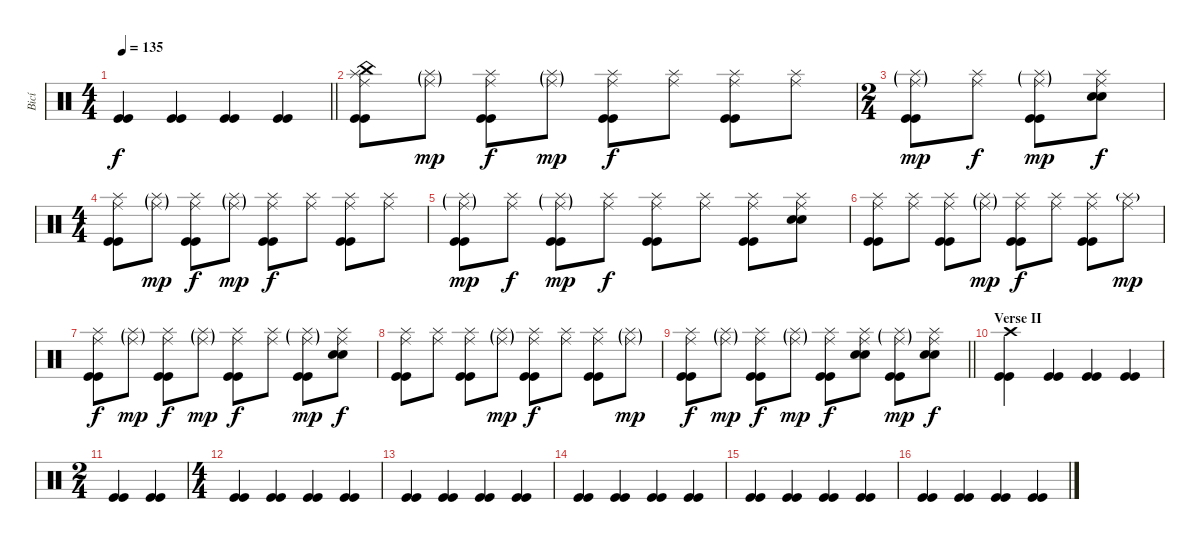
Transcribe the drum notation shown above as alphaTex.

\track ("Bicí" "Bicí") {instrument percussion}
\staff {score}
\articulation defaults
\ts (4 4)
\tempo 135
\clef neutral
\barLineRight lightlight
\ks c
("Kick (hit)" "Kick (hit)").4{dy f} ("Kick (hit)" "Kick (hit)").4 ("Kick (hit)" "Kick (hit)").4 ("Kick (hit)" "Kick (hit)").4 |
\section ("" "")
("China (hit)" "Splash (hit)" "Ride (middle)" "Kick (hit)" "Kick (hit)").8 ("Splash (hit)"{g} "Ride (middle)"{g}).8{dy mp} ("Splash (hit)" "Ride (middle)" "Kick (hit)" "Kick (hit)").8{dy f} ("Splash (hit)"{g} "Ride (middle)"{g}).8{dy mp} ("Splash (hit)" "Ride (middle)" "Kick (hit)" "Kick (hit)").8{dy f} ("Splash (hit)" "Ride (middle)").8 ("Splash (hit)" "Ride (middle)" "Kick (hit)" "Kick (hit)").8 ("Splash (hit)" "Ride (middle)").8 |
\ts (2 4)
("Splash (hit)"{g} "Ride (middle)"{g} "Kick (hit)" "Kick (hit)").8{dy mp} ("Splash (hit)" "Ride (middle)").8{dy f} ("Splash (hit)"{g} "Ride (middle)"{g} "Kick (hit)" "Kick (hit)").8{dy mp} ("Splash (hit)" "Ride (middle)" "Electric Snare (hit)" "Electric Snare (hit)").8{dy f} |
\ts (4 4)
("Splash (hit)" "Ride (middle)" "Kick (hit)" "Kick (hit)").8 ("Splash (hit)"{g} "Ride (middle)"{g}).8{dy mp} ("Splash (hit)" "Ride (middle)" "Kick (hit)" "Kick (hit)").8{dy f} ("Splash (hit)"{g} "Ride (middle)"{g}).8{dy mp} ("Splash (hit)" "Ride (middle)" "Kick (hit)" "Kick (hit)").8{dy f} ("Splash (hit)" "Ride (middle)").8 ("Splash (hit)" "Ride (middle)" "Kick (hit)" "Kick (hit)").8 ("Splash (hit)" "Ride (middle)").8 |
("Splash (hit)"{g} "Ride (middle)"{g} "Kick (hit)" "Kick (hit)").8{dy mp} ("Splash (hit)" "Ride (middle)").8{dy f} ("Splash (hit)"{g} "Ride (middle)"{g} "Kick (hit)" "Kick (hit)").8{dy mp} ("Splash (hit)" "Ride (middle)").8{dy f} ("Splash (hit)" "Ride (middle)" "Kick (hit)" "Kick (hit)").8 ("Splash (hit)" "Ride (middle)").8 ("Splash (hit)" "Ride (middle)" "Kick (hit)" "Kick (hit)").8 ("Splash (hit)" "Ride (middle)" "Electric Snare (hit)" "Electric Snare (hit)").8 |
("Splash (hit)" "Ride (middle)" "Kick (hit)" "Kick (hit)").8 ("Splash (hit)" "Ride (middle)").8 ("Splash (hit)" "Ride (middle)" "Kick (hit)" "Kick (hit)").8 ("Splash (hit)"{g} "Ride (middle)"{g}).8{dy mp} ("Splash (hit)" "Ride (middle)" "Kick (hit)" "Kick (hit)").8{dy f} ("Splash (hit)" "Ride (middle)").8 ("Splash (hit)" "Ride (middle)" "Kick (hit)" "Kick (hit)").8 ("Splash (hit)"{g} "Ride (middle)").8{dy mp} |
("Splash (hit)" "Ride (middle)" "Kick (hit)" "Kick (hit)").8{dy f} ("Splash (hit)"{g} "Ride (middle)"{g}).8{dy mp} ("Splash (hit)" "Ride (middle)" "Kick (hit)" "Kick (hit)").8{dy f} ("Splash (hit)"{g} "Ride (middle)"{g}).8{dy mp} ("Splash (hit)" "Ride (middle)" "Kick (hit)" "Kick (hit)").8{dy f} ("Splash (hit)" "Ride (middle)").8 ("Splash (hit)"{g} "Ride (middle)"{g} "Kick (hit)" "Kick (hit)").8{dy mp} ("Splash (hit)" "Ride (middle)" "Electric Snare (hit)" "Electric Snare (hit)").8{dy f} |
("Splash (hit)" "Ride (middle)" "Kick (hit)" "Kick (hit)").8 ("Splash (hit)" "Ride (middle)").8 ("Splash (hit)" "Ride (middle)" "Kick (hit)" "Kick (hit)").8 ("Splash (hit)"{g} "Ride (middle)"{g}).8{dy mp} ("Splash (hit)" "Ride (middle)" "Kick (hit)" "Kick (hit)").8{dy f} ("Splash (hit)" "Ride (middle)").8 ("Splash (hit)" "Ride (middle)" "Kick (hit)" "Kick (hit)").8 ("Splash (hit)"{g} "Ride (middle)"{g}).8{dy mp} |
\barLineRight lightlight
("Splash (hit)" "Ride (middle)" "Kick (hit)" "Kick (hit)").8{dy f} ("Splash (hit)"{g} "Ride (middle)"{g}).8{dy mp} ("Splash (hit)" "Ride (middle)" "Kick (hit)" "Kick (hit)").8{dy f} ("Splash (hit)"{g} "Ride (middle)"{g}).8{dy mp} ("Splash (hit)" "Ride (middle)" "Kick (hit)" "Kick (hit)").8{dy f} ("Splash (hit)" "Ride (middle)" "Electric Snare (hit)" "Electric Snare (hit)").8 ("Splash (hit)"{g} "Ride (middle)"{g} "Kick (hit)" "Kick (hit)").8{dy mp} ("Splash (hit)" "Ride (middle)" "Electric Snare (hit)" "Electric Snare (hit)").8{dy f} |
\section ("" "Verse II")
("Crash high (hit)" "Kick (hit)" "Kick (hit)").4 ("Kick (hit)" "Kick (hit)").4 ("Kick (hit)" "Kick (hit)").4 ("Kick (hit)" "Kick (hit)").4 |
\ts (2 4)
("Kick (hit)" "Kick (hit)").4 ("Kick (hit)" "Kick (hit)").4 |
\ts (4 4)
("Kick (hit)" "Kick (hit)").4 ("Kick (hit)" "Kick (hit)").4 ("Kick (hit)" "Kick (hit)").4 ("Kick (hit)" "Kick (hit)").4 |
("Kick (hit)" "Kick (hit)").4 ("Kick (hit)" "Kick (hit)").4 ("Kick (hit)" "Kick (hit)").4 ("Kick (hit)" "Kick (hit)").4 |
("Kick (hit)" "Kick (hit)").4 ("Kick (hit)" "Kick (hit)").4 ("Kick (hit)" "Kick (hit)").4 ("Kick (hit)" "Kick (hit)").4 |
("Kick (hit)" "Kick (hit)").4 ("Kick (hit)" "Kick (hit)").4 ("Kick (hit)" "Kick (hit)").4 ("Kick (hit)" "Kick (hit)").4 |
("Kick (hit)" "Kick (hit)").4 ("Kick (hit)" "Kick (hit)").4 ("Kick (hit)" "Kick (hit)").4 ("Kick (hit)" "Kick (hit)").4
